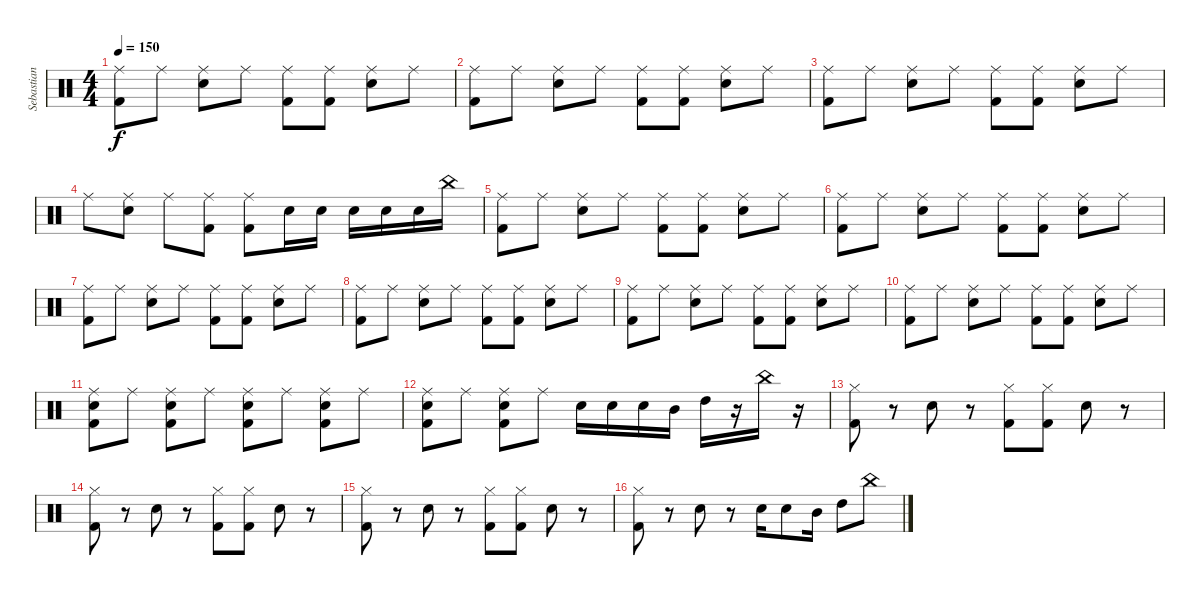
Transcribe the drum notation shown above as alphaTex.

\track ("Sebastian" "Sebastian") {instrument percussion}
\staff {score}
\articulation defaults
\ts (4 4)
\tempo 150
\clef neutral
\ks c
("Kick (hit) 2" "Ride (middle)").8{dy f} "Ride (middle)".8 ("Electric Snare (hit)" "Ride (middle)").8 "Ride (middle)".8 ("Kick (hit) 2" "Ride (middle)").8 ("Kick (hit) 2" "Ride (middle)").8 ("Electric Snare (hit)" "Ride (middle)").8 "Ride (middle)".8 |
("Kick (hit) 2" "Ride (middle)").8 "Ride (middle)".8 ("Electric Snare (hit)" "Ride (middle)").8 "Ride (middle)".8 ("Kick (hit) 2" "Ride (middle)").8 ("Kick (hit) 2" "Ride (middle)").8 ("Electric Snare (hit)" "Ride (middle)").8 "Ride (middle)".8 |
("Kick (hit) 2" "Ride (middle)").8 "Ride (middle)".8 ("Electric Snare (hit)" "Ride (middle)").8 "Ride (middle)".8 ("Kick (hit) 2" "Ride (middle)").8 ("Kick (hit) 2" "Ride (middle)").8 ("Electric Snare (hit)" "Ride (middle)").8 "Ride (middle)".8 |
"Ride (middle)".8 ("Electric Snare (hit)" "Ride (middle)").8 "Ride (middle)".8 ("Kick (hit) 2" "Ride (middle)").8 ("Kick (hit) 2" "Ride (middle)").8 "Electric Snare (hit)".16 "Electric Snare (hit)".16 "Electric Snare (hit)".16 "Electric Snare (hit)".16 "Electric Snare (hit)".16 "China (hit)".16 |
("Kick (hit) 2" "Ride (middle)").8 "Ride (middle)".8 ("Electric Snare (hit)" "Ride (middle)").8 "Ride (middle)".8 ("Kick (hit) 2" "Ride (middle)").8 ("Kick (hit) 2" "Ride (middle)").8 ("Electric Snare (hit)" "Ride (middle)").8 "Ride (middle)".8 |
("Kick (hit) 2" "Ride (middle)").8 "Ride (middle)".8 ("Electric Snare (hit)" "Ride (middle)").8 "Ride (middle)".8 ("Kick (hit) 2" "Ride (middle)").8 ("Kick (hit) 2" "Ride (middle)").8 ("Electric Snare (hit)" "Ride (middle)").8 "Ride (middle)".8 |
("Kick (hit) 2" "Ride (middle)").8 "Ride (middle)".8 ("Electric Snare (hit)" "Ride (middle)").8 "Ride (middle)".8 ("Kick (hit) 2" "Ride (middle)").8 ("Kick (hit) 2" "Ride (middle)").8 ("Electric Snare (hit)" "Ride (middle)").8 "Ride (middle)".8 |
("Kick (hit) 2" "Ride (middle)").8 "Ride (middle)".8 ("Electric Snare (hit)" "Ride (middle)").8 "Ride (middle)".8 ("Kick (hit) 2" "Ride (middle)").8 ("Kick (hit) 2" "Ride (middle)").8 ("Electric Snare (hit)" "Ride (middle)").8 "Ride (middle)".8 |
("Kick (hit) 2" "Ride (middle)").8 "Ride (middle)".8 ("Electric Snare (hit)" "Ride (middle)").8 "Ride (middle)".8 ("Kick (hit) 2" "Ride (middle)").8 ("Kick (hit) 2" "Ride (middle)").8 ("Electric Snare (hit)" "Ride (middle)").8 "Ride (middle)".8 |
("Kick (hit) 2" "Ride (middle)").8 "Ride (middle)".8 ("Electric Snare (hit)" "Ride (middle)").8 "Ride (middle)".8 ("Kick (hit) 2" "Ride (middle)").8 ("Kick (hit) 2" "Ride (middle)").8 ("Electric Snare (hit)" "Ride (middle)").8 "Ride (middle)".8 |
("Electric Snare (hit)" "Kick (hit) 2" "Ride (middle)").8 "Ride (middle)".8 ("Electric Snare (hit)" "Kick (hit) 2" "Ride (middle)").8 "Ride (middle)".8 ("Electric Snare (hit)" "Kick (hit) 2" "Ride (middle)").8 "Ride (middle)".8 ("Electric Snare (hit)" "Kick (hit) 2" "Ride (middle)").8 "Ride (middle)".8 |
("Electric Snare (hit)" "Kick (hit) 2" "Ride (middle)").8 "Ride (middle)".8 ("Electric Snare (hit)" "Kick (hit) 2" "Ride (middle)").8 "Ride (middle)".8 "Electric Snare (hit)".16 "Electric Snare (hit)".16 "Electric Snare (hit)".16 "Mid Tom (hit)".16 "High Tom (hit)".16 r.16 "China (hit)".16 r.16 |
("Kick (hit) 2" "Hi-Hat (closed)").8 r.8 "Electric Snare (hit)".8 r.8 ("Kick (hit) 2" "Hi-Hat (closed)").8 ("Kick (hit) 2" "Hi-Hat (closed)").8 "Electric Snare (hit)".8 r.8 |
("Kick (hit) 2" "Hi-Hat (closed)").8 r.8 "Electric Snare (hit)".8 r.8 ("Kick (hit) 2" "Hi-Hat (closed)").8 ("Kick (hit) 2" "Hi-Hat (closed)").8 "Electric Snare (hit)".8 r.8 |
("Kick (hit) 2" "Hi-Hat (closed)").8 r.8 "Electric Snare (hit)".8 r.8 ("Kick (hit) 2" "Hi-Hat (closed)").8 ("Kick (hit) 2" "Hi-Hat (closed)").8 "Electric Snare (hit)".8 r.8 |
("Kick (hit) 2" "Hi-Hat (closed)").8 r.8 "Electric Snare (hit)".8 r.8 "Electric Snare (hit)".16 "Electric Snare (hit)".8 "Mid Tom (hit)".16 "High Tom (hit)".8 "China (hit)".8
